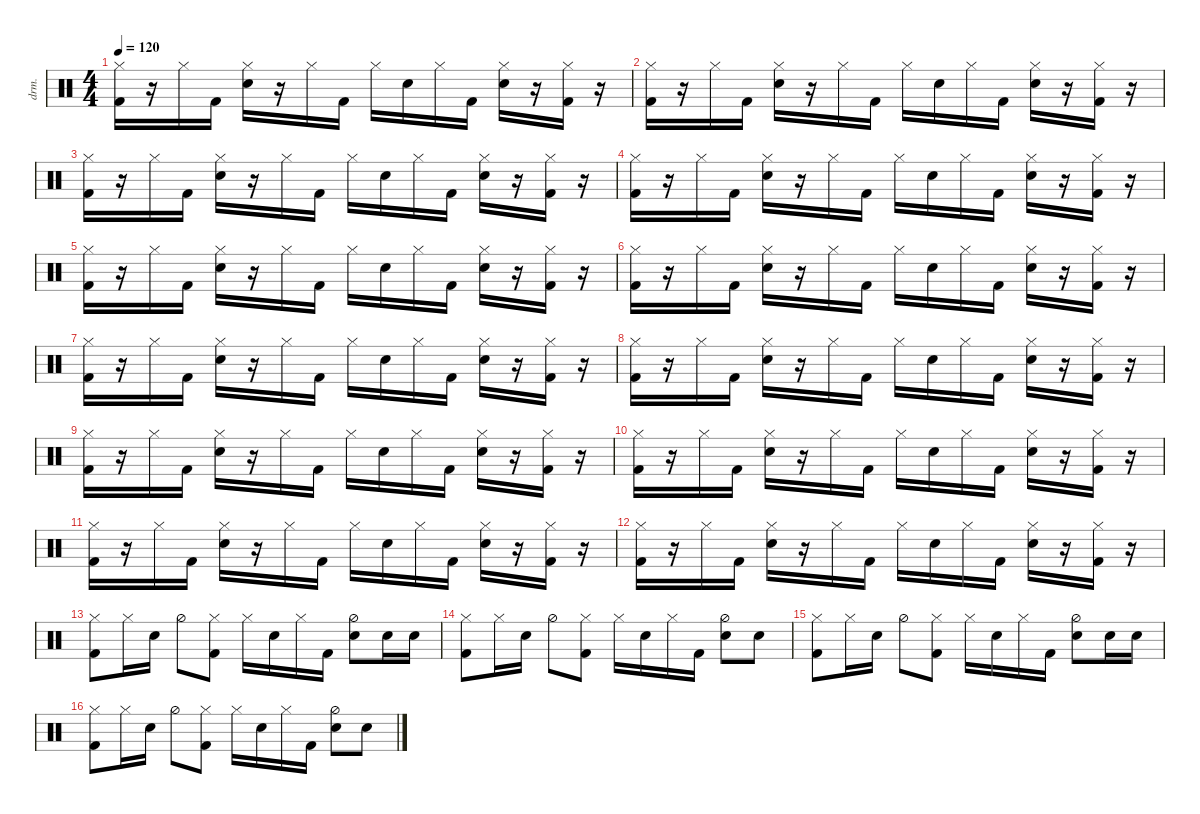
\defaultSystemsLayout 4
\hideDynamics
\bracketExtendMode nobrackets
\otherSystemsTrackNameOrientation horizontal
\track ("Drumkit" "drm.") {instrument percussion}
\staff {score}
\articulation defaults
\ts (4 4)
\tempo 120
\clef neutral
\ks c
("Hi-Hat (closed)" "Kick (hit) 2").16{dy mf beam Down} r.16{beam Down} "Hi-Hat (closed)".16{beam Down} "Kick (hit) 2".16{beam Down} ("Hi-Hat (closed)" "Snare (hit) 2").16{beam Down} r.16{beam Down} "Hi-Hat (closed)".16{beam Down} "Kick (hit) 2".16{beam Down} "Hi-Hat (closed)".16{beam Down} "Snare (hit) 2".16{beam Down} "Hi-Hat (closed)".16{beam Down} "Kick (hit) 2".16{beam Down} ("Hi-Hat (closed)" "Snare (hit) 2").16{beam Down} r.16{beam Down} ("Hi-Hat (closed)" "Kick (hit) 2").16{beam Down} r.16{beam Down} |
("Hi-Hat (closed)" "Kick (hit) 2").16{beam Down} r.16{beam Down} "Hi-Hat (closed)".16{beam Down} "Kick (hit) 2".16{beam Down} ("Hi-Hat (closed)" "Snare (hit) 2").16{beam Down} r.16{beam Down} "Hi-Hat (closed)".16{beam Down} "Kick (hit) 2".16{beam Down} "Hi-Hat (closed)".16{beam Down} "Snare (hit) 2".16{beam Down} "Hi-Hat (closed)".16{beam Down} "Kick (hit) 2".16{beam Down} ("Hi-Hat (closed)" "Snare (hit) 2").16{beam Down} r.16{beam Down} ("Hi-Hat (closed)" "Kick (hit) 2").16{beam Down} r.16{beam Down} |
("Hi-Hat (closed)" "Kick (hit) 2").16{beam Down} r.16{beam Down} "Hi-Hat (closed)".16{beam Down} "Kick (hit) 2".16{beam Down} ("Hi-Hat (closed)" "Snare (hit) 2").16{beam Down} r.16{beam Down} "Hi-Hat (closed)".16{beam Down} "Kick (hit) 2".16{beam Down} "Hi-Hat (closed)".16{beam Down} "Snare (hit) 2".16{beam Down} "Hi-Hat (closed)".16{beam Down} "Kick (hit) 2".16{beam Down} ("Hi-Hat (closed)" "Snare (hit) 2").16{beam Down} r.16{beam Down} ("Hi-Hat (closed)" "Kick (hit) 2").16{beam Down} r.16{beam Down} |
("Hi-Hat (closed)" "Kick (hit) 2").16{beam Down} r.16{beam Down} "Hi-Hat (closed)".16{beam Down} "Kick (hit) 2".16{beam Down} ("Hi-Hat (closed)" "Snare (hit) 2").16{beam Down} r.16{beam Down} "Hi-Hat (closed)".16{beam Down} "Kick (hit) 2".16{beam Down} "Hi-Hat (closed)".16{beam Down} "Snare (hit) 2".16{beam Down} "Hi-Hat (closed)".16{beam Down} "Kick (hit) 2".16{beam Down} ("Hi-Hat (closed)" "Snare (hit) 2").16{beam Down} r.16{beam Down} ("Hi-Hat (closed)" "Kick (hit) 2").16{beam Down} r.16{beam Down} |
("Hi-Hat (closed)" "Kick (hit) 2").16{beam Down} r.16{beam Down} "Hi-Hat (closed)".16{beam Down} "Kick (hit) 2".16{beam Down} ("Hi-Hat (closed)" "Snare (hit) 2").16{beam Down} r.16{beam Down} "Hi-Hat (closed)".16{beam Down} "Kick (hit) 2".16{beam Down} "Hi-Hat (closed)".16{beam Down} "Snare (hit) 2".16{beam Down} "Hi-Hat (closed)".16{beam Down} "Kick (hit) 2".16{beam Down} ("Hi-Hat (closed)" "Snare (hit) 2").16{beam Down} r.16{beam Down} ("Hi-Hat (closed)" "Kick (hit) 2").16{beam Down} r.16{beam Down} |
("Hi-Hat (closed)" "Kick (hit) 2").16{beam Down} r.16{beam Down} "Hi-Hat (closed)".16{beam Down} "Kick (hit) 2".16{beam Down} ("Hi-Hat (closed)" "Snare (hit) 2").16{beam Down} r.16{beam Down} "Hi-Hat (closed)".16{beam Down} "Kick (hit) 2".16{beam Down} "Hi-Hat (closed)".16{beam Down} "Snare (hit) 2".16{beam Down} "Hi-Hat (closed)".16{beam Down} "Kick (hit) 2".16{beam Down} ("Hi-Hat (closed)" "Snare (hit) 2").16{beam Down} r.16{beam Down} ("Hi-Hat (closed)" "Kick (hit) 2").16{beam Down} r.16{beam Down} |
("Hi-Hat (closed)" "Kick (hit) 2").16{beam Down} r.16{beam Down} "Hi-Hat (closed)".16{beam Down} "Kick (hit) 2".16{beam Down} ("Hi-Hat (closed)" "Snare (hit) 2").16{beam Down} r.16{beam Down} "Hi-Hat (closed)".16{beam Down} "Kick (hit) 2".16{beam Down} "Hi-Hat (closed)".16{beam Down} "Snare (hit) 2".16{beam Down} "Hi-Hat (closed)".16{beam Down} "Kick (hit) 2".16{beam Down} ("Hi-Hat (closed)" "Snare (hit) 2").16{beam Down} r.16{beam Down} ("Hi-Hat (closed)" "Kick (hit) 2").16{beam Down} r.16{beam Down} |
("Hi-Hat (closed)" "Kick (hit) 2").16{beam Down} r.16{beam Down} "Hi-Hat (closed)".16{beam Down} "Kick (hit) 2".16{beam Down} ("Hi-Hat (closed)" "Snare (hit) 2").16{beam Down} r.16{beam Down} "Hi-Hat (closed)".16{beam Down} "Kick (hit) 2".16{beam Down} "Hi-Hat (closed)".16{beam Down} "Snare (hit) 2".16{beam Down} "Hi-Hat (closed)".16{beam Down} "Kick (hit) 2".16{beam Down} ("Hi-Hat (closed)" "Snare (hit) 2").16{beam Down} r.16{beam Down} ("Hi-Hat (closed)" "Kick (hit) 2").16{beam Down} r.16{beam Down} |
("Hi-Hat (closed)" "Kick (hit) 2").16{beam Down} r.16{beam Down} "Hi-Hat (closed)".16{beam Down} "Kick (hit) 2".16{beam Down} ("Hi-Hat (closed)" "Snare (hit) 2").16{beam Down} r.16{beam Down} "Hi-Hat (closed)".16{beam Down} "Kick (hit) 2".16{beam Down} "Hi-Hat (closed)".16{beam Down} "Snare (hit) 2".16{beam Down} "Hi-Hat (closed)".16{beam Down} "Kick (hit) 2".16{beam Down} ("Hi-Hat (closed)" "Snare (hit) 2").16{beam Down} r.16{beam Down} ("Hi-Hat (closed)" "Kick (hit) 2").16{beam Down} r.16{beam Down} |
("Hi-Hat (closed)" "Kick (hit) 2").16{beam Down} r.16{beam Down} "Hi-Hat (closed)".16{beam Down} "Kick (hit) 2".16{beam Down} ("Hi-Hat (closed)" "Snare (hit) 2").16{beam Down} r.16{beam Down} "Hi-Hat (closed)".16{beam Down} "Kick (hit) 2".16{beam Down} "Hi-Hat (closed)".16{beam Down} "Snare (hit) 2".16{beam Down} "Hi-Hat (closed)".16{beam Down} "Kick (hit) 2".16{beam Down} ("Hi-Hat (closed)" "Snare (hit) 2").16{beam Down} r.16{beam Down} ("Hi-Hat (closed)" "Kick (hit) 2").16{beam Down} r.16{beam Down} |
("Hi-Hat (closed)" "Kick (hit) 2").16{beam Down} r.16{beam Down} "Hi-Hat (closed)".16{beam Down} "Kick (hit) 2".16{beam Down} ("Hi-Hat (closed)" "Snare (hit) 2").16{beam Down} r.16{beam Down} "Hi-Hat (closed)".16{beam Down} "Kick (hit) 2".16{beam Down} "Hi-Hat (closed)".16{beam Down} "Snare (hit) 2".16{beam Down} "Hi-Hat (closed)".16{beam Down} "Kick (hit) 2".16{beam Down} ("Hi-Hat (closed)" "Snare (hit) 2").16{beam Down} r.16{beam Down} ("Hi-Hat (closed)" "Kick (hit) 2").16{beam Down} r.16{beam Down} |
("Hi-Hat (closed)" "Kick (hit) 2").16{beam Down} r.16{beam Down} "Hi-Hat (closed)".16{beam Down} "Kick (hit) 2".16{beam Down} ("Hi-Hat (closed)" "Snare (hit) 2").16{beam Down} r.16{beam Down} "Hi-Hat (closed)".16{beam Down} "Kick (hit) 2".16{beam Down} "Hi-Hat (closed)".16{beam Down} "Snare (hit) 2".16{beam Down} "Hi-Hat (closed)".16{beam Down} "Kick (hit) 2".16{beam Down} ("Hi-Hat (closed)" "Snare (hit) 2").16{beam Down} r.16{beam Down} ("Hi-Hat (closed)" "Kick (hit) 2").16{beam Down} r.16{beam Down} |
("Kick (hit) 2" "Hi-Hat (closed)").8{beam Down} "Hi-Hat (closed)".16{beam Down} "Snare (hit) 2".16{beam Down} "Hi-Hat (half)".8{beam Down} ("Kick (hit) 2" "Hi-Hat (closed)").8{beam Down} "Hi-Hat (closed)".16{beam Down} "Snare (hit) 2".16{beam Down} "Hi-Hat (closed)".16{beam Down} "Kick (hit) 2".16{beam Down} ("Snare (hit) 2" "Hi-Hat (half)").8{beam Down} "Snare (hit) 2".16{beam Down} "Snare (hit) 2".16{beam Down} |
("Kick (hit) 2" "Hi-Hat (closed)").8{beam Down} "Hi-Hat (closed)".16{beam Down} "Snare (hit) 2".16{beam Down} "Hi-Hat (half)".8{beam Down} ("Kick (hit) 2" "Hi-Hat (closed)").8{beam Down} "Hi-Hat (closed)".16{beam Down} "Snare (hit) 2".16{beam Down} "Hi-Hat (closed)".16{beam Down} "Kick (hit) 2".16{beam Down} ("Snare (hit) 2" "Hi-Hat (half)").8{beam Down} "Snare (hit) 2".8{beam Down} |
("Kick (hit) 2" "Hi-Hat (closed)").8{beam Down} "Hi-Hat (closed)".16{beam Down} "Snare (hit) 2".16{beam Down} "Hi-Hat (half)".8{beam Down} ("Kick (hit) 2" "Hi-Hat (closed)").8{beam Down} "Hi-Hat (closed)".16{beam Down} "Snare (hit) 2".16{beam Down} "Hi-Hat (closed)".16{beam Down} "Kick (hit) 2".16{beam Down} ("Snare (hit) 2" "Hi-Hat (half)").8{beam Down} "Snare (hit) 2".16{beam Down} "Snare (hit) 2".16{beam Down} |
("Kick (hit) 2" "Hi-Hat (closed)").8{beam Down} "Hi-Hat (closed)".16{beam Down} "Snare (hit) 2".16{beam Down} "Hi-Hat (half)".8{beam Down} ("Kick (hit) 2" "Hi-Hat (closed)").8{beam Down} "Hi-Hat (closed)".16{beam Down} "Snare (hit) 2".16{beam Down} "Hi-Hat (closed)".16{beam Down} "Kick (hit) 2".16{beam Down} ("Snare (hit) 2" "Hi-Hat (half)").8{beam Down} "Snare (hit) 2".8{beam Down}
